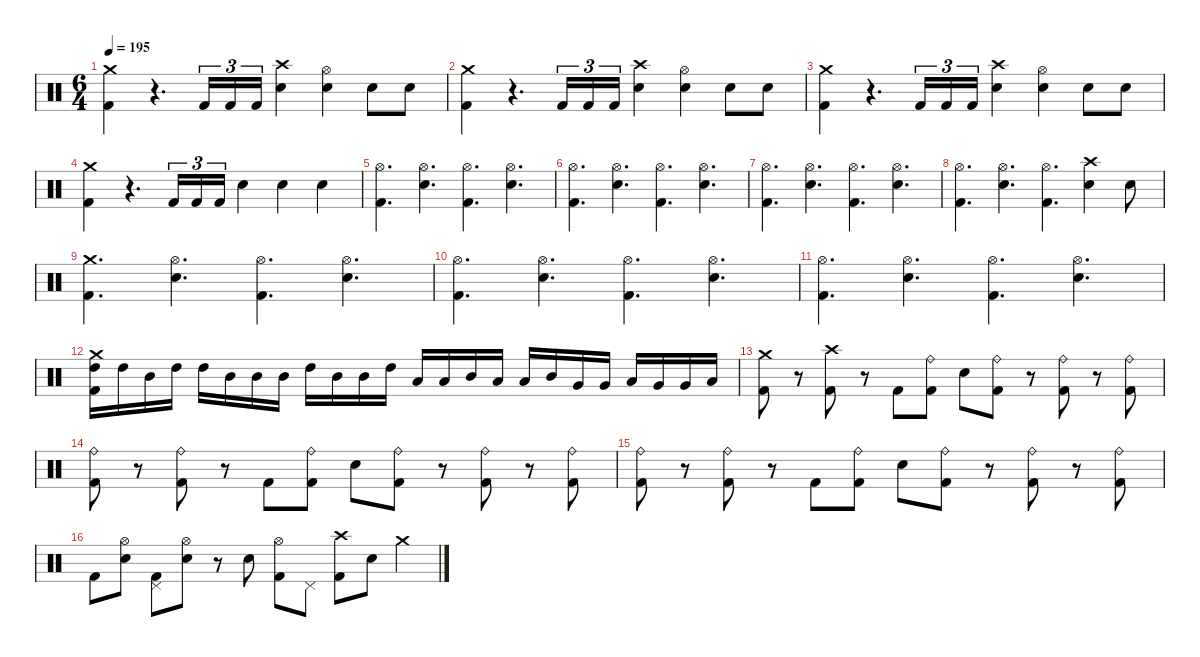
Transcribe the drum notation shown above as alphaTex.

\defaultSystemsLayout 4
\hideDynamics
\bracketExtendMode nobrackets
\singleTrackTrackNamePolicy hidden
\multiTrackTrackNamePolicy hidden
\firstSystemTrackNameMode fullname
\firstSystemTrackNameOrientation horizontal
\otherSystemsTrackNameOrientation horizontal
\track ("Drums" "drm.") {instrument percussion}
\staff {score}
\articulation defaults
\ts (6 4)
\tempo 195
\clef neutral
\ks c
("Crash medium (hit)" "Kick (hit) 2").4{dy f beam Down} r.4{d beam Down} "Kick (hit) 2".16{tu (3 2) beam Up} "Kick (hit) 2".16{tu (3 2) beam Up} "Kick (hit) 2".16{tu (3 2) beam Up} ("Crash high (hit)" "Snare (hit) 2").4{beam Down} ("Hi-Hat (open)" "Snare (hit) 2").4{beam Down} "Snare (hit) 2".8{beam Down} "Snare (hit) 2".8{beam Down} |
("Crash medium (hit)" "Kick (hit) 2").4{beam Down} r.4{d beam Down} "Kick (hit) 2".16{tu (3 2) beam Up} "Kick (hit) 2".16{tu (3 2) beam Up} "Kick (hit) 2".16{tu (3 2) beam Up} ("Crash high (hit)" "Snare (hit) 2").4{beam Down} ("Hi-Hat (open)" "Snare (hit) 2").4{beam Down} "Snare (hit) 2".8{beam Down} "Snare (hit) 2".8{beam Down} |
("Crash medium (hit)" "Kick (hit) 2").4{beam Down} r.4{d beam Down} "Kick (hit) 2".16{tu (3 2) beam Up} "Kick (hit) 2".16{tu (3 2) beam Up} "Kick (hit) 2".16{tu (3 2) beam Up} ("Crash high (hit)" "Snare (hit) 2").4{beam Down} ("Hi-Hat (open)" "Snare (hit) 2").4{beam Down} "Snare (hit) 2".8{beam Down} "Snare (hit) 2".8{beam Down} |
("Crash medium (hit)" "Kick (hit) 2").4{beam Down} r.4{d beam Down} "Kick (hit) 2".16{tu (3 2) beam Up} "Kick (hit) 2".16{tu (3 2) beam Up} "Kick (hit) 2".16{tu (3 2) beam Up} "Snare (hit) 2".4{beam Down} "Snare (hit) 2".4{beam Down} "Snare (hit) 2".4{beam Down} |
("Hi-Hat (open)" "Kick (hit) 2").4{d beam Down} ("Hi-Hat (open)" "Snare (hit) 2").4{d beam Down} ("Hi-Hat (open)" "Kick (hit) 2").4{d beam Down} ("Hi-Hat (open)" "Snare (hit) 2").4{d beam Down} |
("Hi-Hat (open)" "Kick (hit) 2").4{d beam Down} ("Hi-Hat (open)" "Snare (hit) 2").4{d beam Down} ("Hi-Hat (open)" "Kick (hit) 2").4{d beam Down} ("Hi-Hat (open)" "Snare (hit) 2").4{d beam Down} |
("Hi-Hat (open)" "Kick (hit) 2").4{d beam Down} ("Hi-Hat (open)" "Snare (hit) 2").4{d beam Down} ("Hi-Hat (open)" "Kick (hit) 2").4{d beam Down} ("Hi-Hat (open)" "Snare (hit) 2").4{d beam Down} |
("Hi-Hat (open)" "Kick (hit) 2").4{d beam Down} ("Hi-Hat (open)" "Snare (hit) 2").4{d beam Down} ("Hi-Hat (open)" "Kick (hit) 2").4{d beam Down} ("Crash high (hit)" "Snare (hit) 2").4{beam Down} "Snare (hit) 2".8{beam Down} |
("Crash medium (hit)" "Kick (hit) 2").4{d beam Down} ("Hi-Hat (open)" "Snare (hit) 2").4{d beam Down} ("Hi-Hat (open)" "Kick (hit) 2").4{d beam Down} ("Hi-Hat (open)" "Snare (hit) 2").4{d beam Down} |
("Hi-Hat (open)" "Kick (hit) 2").4{d beam Down} ("Hi-Hat (open)" "Snare (hit) 2").4{d beam Down} ("Hi-Hat (open)" "Kick (hit) 2").4{d beam Down} ("Hi-Hat (open)" "Snare (hit) 2").4{d beam Down} |
("Hi-Hat (open)" "Kick (hit) 2").4{d beam Down} ("Hi-Hat (open)" "Snare (hit) 2").4{d beam Down} ("Hi-Hat (open)" "Kick (hit) 2").4{d beam Down} ("Hi-Hat (open)" "Snare (hit) 2").4{d beam Down} |
("Crash medium (hit)" "High Tom (hit)" "Kick (hit) 2").16{beam Down} "High Tom (hit)".16{beam Down} "Mid Tom (hit)".16{beam Down} "High Tom (hit)".16{beam Down} "High Tom (hit)".16{beam Down} "Mid Tom (hit)".16{beam Down} "Mid Tom (hit)".16{beam Down} "Mid Tom (hit)".16{beam Down} "High Tom (hit)".16{beam Down} "Mid Tom (hit)".16{beam Down} "Mid Tom (hit)".16{beam Down} "High Tom (hit)".16{beam Down} "Low Tom (hit)".16{beam Up} "Low Tom (hit)".16{beam Up} "Mid Tom (hit)".16{beam Up} "Low Tom (hit)".16{beam Up} "Low Tom (hit)".16{beam Up} "Mid Tom (hit)".16{beam Up} "Very Low Tom (hit)".16{beam Up} "Very Low Tom (hit)".16{beam Up} "Low Tom (hit)".16{beam Up} "Very Low Tom (hit)".16{beam Up} "Very Low Tom (hit)".16{beam Up} "Low Tom (hit)".16{beam Up} |
("Crash medium (hit)" "Kick (hit) 2").8{beam Down} r.8{beam Down} ("Crash high (hit)" "Kick (hit) 2").8{beam Down} r.8{beam Down} "Kick (hit) 2".8{beam Down} ("Ride (bell)" "Kick (hit) 2").8{beam Down} "Snare (hit) 2".8{beam Down} ("Ride (bell)" "Kick (hit) 2").8{beam Down} r.8{beam Down} ("Ride (bell)" "Kick (hit) 2").8{beam Down} r.8{beam Down} ("Ride (bell)" "Kick (hit) 2").8{beam Down} |
("Ride (bell)" "Kick (hit) 2").8{beam Down} r.8{beam Down} ("Ride (bell)" "Kick (hit) 2").8{beam Down} r.8{beam Down} "Kick (hit) 2".8{beam Down} ("Ride (bell)" "Kick (hit) 2").8{beam Down} "Snare (hit) 2".8{beam Down} ("Ride (bell)" "Kick (hit) 2").8{beam Down} r.8{beam Down} ("Ride (bell)" "Kick (hit) 2").8{beam Down} r.8{beam Down} ("Ride (bell)" "Kick (hit) 2").8{beam Down} |
("Ride (bell)" "Kick (hit) 2").8{beam Down} r.8{beam Down} ("Ride (bell)" "Kick (hit) 2").8{beam Down} r.8{beam Down} "Kick (hit) 2".8{beam Down} ("Ride (bell)" "Kick (hit) 2").8{beam Down} "Snare (hit) 2".8{beam Down} ("Ride (bell)" "Kick (hit) 2").8{beam Down} r.8{beam Down} ("Ride (bell)" "Kick (hit) 2").8{beam Down} r.8{beam Down} ("Ride (bell)" "Kick (hit) 2").8{beam Down} |
"Kick (hit) 2".8{beam Down} ("Hi-Hat (open)" "Snare (hit) 2").8{beam Down} ("Pedal Hi-Hat (hit)" "Kick (hit) 2").8{beam Down} ("Hi-Hat (open)" "Snare (hit) 2").8{beam Down} r.8{beam Down} "Snare (hit) 2".8{beam Down} ("Hi-Hat (open)" "Kick (hit) 2").8{beam Down} "Pedal Hi-Hat (hit)".8{beam Down} ("Crash high (hit)" "Kick (hit) 2").8{beam Down} "Snare (hit) 2".8{beam Down} "Crash medium (hit)".4{beam Down}
